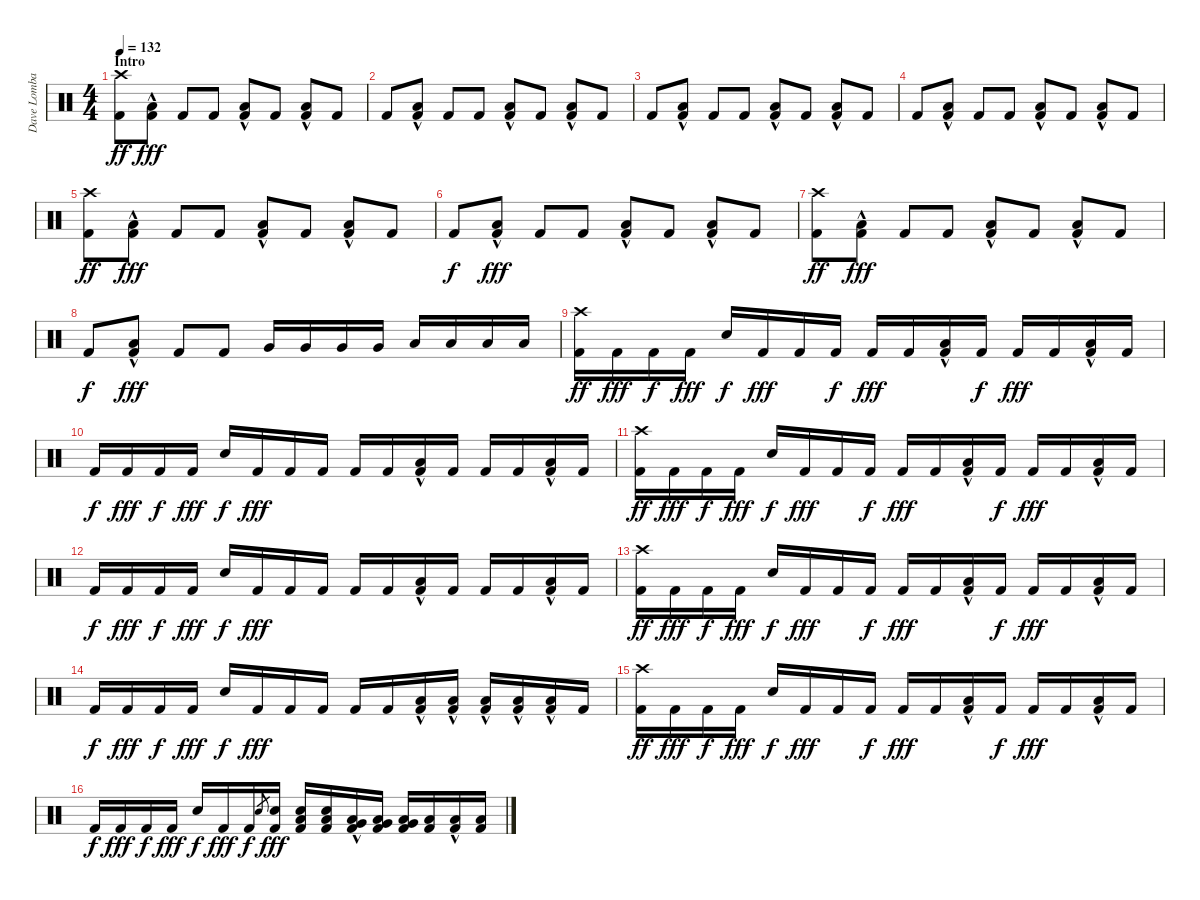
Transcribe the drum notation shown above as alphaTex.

\track ("Dave Lombardo" "Dave Lomba") {instrument percussion}
\staff {score}
\articulation defaults
\ts (4 4)
\section ("" "Intro")
\tempo 132
\clef neutral
\ks c
("Crash high (hit)" "Kick (hit) 2").8{dy ff} ("Low Floor Tom (hit)"{hac} "Kick (hit) 2").8{dy fff} "Kick (hit) 2".8 "Kick (hit) 2".8 ("Low Floor Tom (hit)"{hac} "Kick (hit) 2").8 "Kick (hit) 2".8 ("Low Floor Tom (hit)"{hac} "Kick (hit) 2").8 "Kick (hit) 2".8 |
"Kick (hit) 2".8 ("Low Floor Tom (hit)"{hac} "Kick (hit) 2").8 "Kick (hit) 2".8 "Kick (hit) 2".8 ("Low Floor Tom (hit)"{hac} "Kick (hit) 2").8 "Kick (hit) 2".8 ("Low Floor Tom (hit)"{hac} "Kick (hit) 2").8 "Kick (hit) 2".8 |
"Kick (hit) 2".8 ("Low Floor Tom (hit)"{hac} "Kick (hit) 2").8 "Kick (hit) 2".8 "Kick (hit) 2".8 ("Low Floor Tom (hit)"{hac} "Kick (hit) 2").8 "Kick (hit) 2".8 ("Low Floor Tom (hit)"{hac} "Kick (hit) 2").8 "Kick (hit) 2".8 |
"Kick (hit) 2".8 ("Low Floor Tom (hit)"{hac} "Kick (hit) 2").8 "Kick (hit) 2".8 "Kick (hit) 2".8 ("Low Floor Tom (hit)"{hac} "Kick (hit) 2").8 "Kick (hit) 2".8 ("Low Floor Tom (hit)"{hac} "Kick (hit) 2").8 "Kick (hit) 2".8 |
("Crash high (hit)" "Kick (hit) 2").8{dy ff} ("Low Floor Tom (hit)"{hac} "Kick (hit) 2").8{dy fff} "Kick (hit) 2".8 "Kick (hit) 2".8 ("Low Floor Tom (hit)"{hac} "Kick (hit) 2").8 "Kick (hit) 2".8 ("Low Floor Tom (hit)"{hac} "Kick (hit) 2").8 "Kick (hit) 2".8 |
"Kick (hit) 2".8{dy f} ("Low Floor Tom (hit)"{hac} "Kick (hit) 2").8{dy fff} "Kick (hit) 2".8 "Kick (hit) 2".8 ("Low Floor Tom (hit)"{hac} "Kick (hit) 2").8 "Kick (hit) 2".8 ("Low Floor Tom (hit)"{hac} "Kick (hit) 2").8 "Kick (hit) 2".8 |
("Crash high (hit)" "Kick (hit) 2").8{dy ff} ("Low Floor Tom (hit)"{hac} "Kick (hit) 2").8{dy fff} "Kick (hit) 2".8 "Kick (hit) 2".8 ("Low Floor Tom (hit)"{hac} "Kick (hit) 2").8 "Kick (hit) 2".8 ("Low Floor Tom (hit)"{hac} "Kick (hit) 2").8 "Kick (hit) 2".8 |
"Kick (hit) 2".8{dy f} ("Low Floor Tom (hit)"{hac} "Kick (hit) 2").8{dy fff} "Kick (hit) 2".8 "Kick (hit) 2".8 "Very Low Tom (hit)".16 "Very Low Tom (hit)".16 "Very Low Tom (hit)".16 "Very Low Tom (hit)".16 "Low Floor Tom (hit)".16 "Low Floor Tom (hit)".16 "Low Floor Tom (hit)".16 "Low Floor Tom (hit)".16 |
("Crash high (hit)" "Kick (hit) 2").16{dy ff} "Kick (hit) 2".16{dy fff} "Kick (hit) 2".16{dy f} "Kick (hit) 2".16{dy fff} "Snare (hit) 2".16{dy f} "Kick (hit) 2".16{dy fff} "Kick (hit) 2".16 "Kick (hit) 2".16{dy f} "Kick (hit) 2".16{dy fff} "Kick (hit) 2".16 ("Low Floor Tom (hit)"{hac} "Kick (hit) 2").16 "Kick (hit) 2".16{dy f} "Kick (hit) 2".16{dy fff} "Kick (hit) 2".16 ("Low Floor Tom (hit)"{hac} "Kick (hit) 2").16 "Kick (hit) 2".16 |
"Kick (hit) 2".16{dy f} "Kick (hit) 2".16{dy fff} "Kick (hit) 2".16{dy f} "Kick (hit) 2".16{dy fff} "Snare (hit) 2".16{dy f} "Kick (hit) 2".16{dy fff} "Kick (hit) 2".16 "Kick (hit) 2".16 "Kick (hit) 2".16 "Kick (hit) 2".16 ("Low Floor Tom (hit)"{hac} "Kick (hit) 2").16 "Kick (hit) 2".16 "Kick (hit) 2".16 "Kick (hit) 2".16 ("Low Floor Tom (hit)"{hac} "Kick (hit) 2").16 "Kick (hit) 2".16 |
("Crash high (hit)" "Kick (hit) 2").16{dy ff} "Kick (hit) 2".16{dy fff} "Kick (hit) 2".16{dy f} "Kick (hit) 2".16{dy fff} "Snare (hit) 2".16{dy f} "Kick (hit) 2".16{dy fff} "Kick (hit) 2".16 "Kick (hit) 2".16{dy f} "Kick (hit) 2".16{dy fff} "Kick (hit) 2".16 ("Low Floor Tom (hit)"{hac} "Kick (hit) 2").16 "Kick (hit) 2".16{dy f} "Kick (hit) 2".16{dy fff} "Kick (hit) 2".16 ("Low Floor Tom (hit)"{hac} "Kick (hit) 2").16 "Kick (hit) 2".16 |
"Kick (hit) 2".16{dy f} "Kick (hit) 2".16{dy fff} "Kick (hit) 2".16{dy f} "Kick (hit) 2".16{dy fff} "Snare (hit) 2".16{dy f} "Kick (hit) 2".16{dy fff} "Kick (hit) 2".16 "Kick (hit) 2".16 "Kick (hit) 2".16 "Kick (hit) 2".16 ("Low Floor Tom (hit)"{hac} "Kick (hit) 2").16 "Kick (hit) 2".16 "Kick (hit) 2".16 "Kick (hit) 2".16 ("Low Floor Tom (hit)"{hac} "Kick (hit) 2").16 "Kick (hit) 2".16 |
("Crash high (hit)" "Kick (hit) 2").16{dy ff} "Kick (hit) 2".16{dy fff} "Kick (hit) 2".16{dy f} "Kick (hit) 2".16{dy fff} "Snare (hit) 2".16{dy f} "Kick (hit) 2".16{dy fff} "Kick (hit) 2".16 "Kick (hit) 2".16{dy f} "Kick (hit) 2".16{dy fff} "Kick (hit) 2".16 ("Low Floor Tom (hit)"{hac} "Kick (hit) 2").16 "Kick (hit) 2".16{dy f} "Kick (hit) 2".16{dy fff} "Kick (hit) 2".16 ("Low Floor Tom (hit)"{hac} "Kick (hit) 2").16 "Kick (hit) 2".16 |
"Kick (hit) 2".16{dy f} "Kick (hit) 2".16{dy fff} "Kick (hit) 2".16{dy f} "Kick (hit) 2".16{dy fff} "Snare (hit) 2".16{dy f} "Kick (hit) 2".16{dy fff} "Kick (hit) 2".16 "Kick (hit) 2".16 "Kick (hit) 2".16 "Kick (hit) 2".16 ("Low Floor Tom (hit)"{hac} "Kick (hit) 2").16 ("Low Floor Tom (hit)"{hac} "Kick (hit) 2").16 ("Low Floor Tom (hit)"{hac} "Kick (hit) 2").16 ("Low Floor Tom (hit)"{hac} "Kick (hit) 2").16 ("Low Floor Tom (hit)"{hac} "Kick (hit) 2").16 "Kick (hit) 2".16 |
("Crash high (hit)" "Kick (hit) 2").16{dy ff} "Kick (hit) 2".16{dy fff} "Kick (hit) 2".16{dy f} "Kick (hit) 2".16{dy fff} "Snare (hit) 2".16{dy f} "Kick (hit) 2".16{dy fff} "Kick (hit) 2".16 "Kick (hit) 2".16{dy f} "Kick (hit) 2".16{dy fff} "Kick (hit) 2".16 ("Low Floor Tom (hit)"{hac} "Kick (hit) 2").16 "Kick (hit) 2".16{dy f} "Kick (hit) 2".16{dy fff} "Kick (hit) 2".16 ("Low Floor Tom (hit)"{hac} "Kick (hit) 2").16 "Kick (hit) 2".16 |
"Kick (hit) 2".16{dy f} "Kick (hit) 2".16{dy fff} "Kick (hit) 2".16{dy f} "Kick (hit) 2".16{dy fff} "Snare (hit) 2".16{dy f} "Kick (hit) 2".16{dy fff} "Kick (hit) 2".16{dy f} "Snare (hit) 2".8{gr} ("Snare (hit) 2" "Kick (hit) 2").16{dy fff} ("Low Floor Tom (hit)" "Snare (hit) 2" "Kick (hit) 2").16 ("Low Floor Tom (hit)" "Snare (hit) 2" "Kick (hit) 2").16 ("Very Low Tom (hit)"{hac} "Low Floor Tom (hit)" "Kick (hit) 2").16 ("Very Low Tom (hit)" "Low Floor Tom (hit)" "Kick (hit) 2").16 ("Very Low Tom (hit)" "Low Floor Tom (hit)" "Kick (hit) 2").16 ("Low Floor Tom (hit)" "Kick (hit) 2").16 ("Low Floor Tom (hit)"{hac} "Kick (hit) 2").16 ("Low Floor Tom (hit)" "Kick (hit) 2").16
